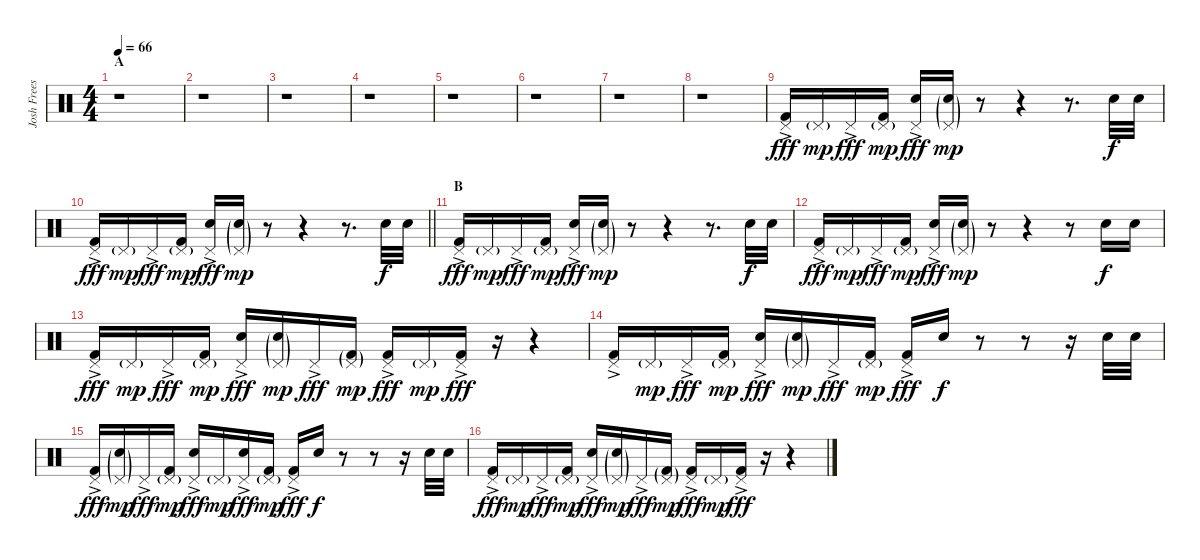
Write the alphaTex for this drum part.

\track ("Josh Freese - Drums" "Josh Frees") {instrument percussion}
\staff {score}
\articulation defaults
\ts (4 4)
\section ("" "A")
\tempo 66
\clef neutral
\ks c
r.1{dy fff} |
r.1 |
r.1 |
r.1 |
r.1 |
r.1 |
r.1 |
r.1 |
("Pedal Hi-Hat (hit)"{ac} "Kick (hit) 2").16 "Pedal Hi-Hat (hit)"{g}.16{dy mp} "Pedal Hi-Hat (hit)"{ac}.16{dy fff} ("Pedal Hi-Hat (hit)"{g} "Kick (hit) 2").16{dy mp} ("Pedal Hi-Hat (hit)"{ac} "Electric Snare (hit)").16{dy fff} ("Pedal Hi-Hat (hit)"{g} "Electric Snare (hit)"{g}).16{dy mp} r.8 r.4 r.8{d} "Electric Snare (hit)".32{dy f} "Electric Snare (hit)".32 |
\barLineRight lightlight
("Pedal Hi-Hat (hit)"{ac} "Kick (hit) 2").16{dy fff} "Pedal Hi-Hat (hit)"{g}.16{dy mp} "Pedal Hi-Hat (hit)"{ac}.16{dy fff} ("Pedal Hi-Hat (hit)"{g} "Kick (hit) 2").16{dy mp} ("Pedal Hi-Hat (hit)"{ac} "Electric Snare (hit)").16{dy fff} ("Pedal Hi-Hat (hit)"{g} "Electric Snare (hit)"{g}).16{dy mp} r.8 r.4 r.8{d} "Electric Snare (hit)".32{dy f} "Electric Snare (hit)".32 |
\section ("" "B")
("Pedal Hi-Hat (hit)"{ac} "Kick (hit) 2").16{dy fff} "Pedal Hi-Hat (hit)"{g}.16{dy mp} "Pedal Hi-Hat (hit)"{ac}.16{dy fff} ("Pedal Hi-Hat (hit)"{g} "Kick (hit) 2").16{dy mp} ("Pedal Hi-Hat (hit)"{ac} "Electric Snare (hit)").16{dy fff} ("Pedal Hi-Hat (hit)"{g} "Electric Snare (hit)"{g}).16{dy mp} r.8 r.4 r.8{d} "Electric Snare (hit)".32{dy f} "Electric Snare (hit)".32 |
("Pedal Hi-Hat (hit)"{ac} "Kick (hit) 2").16{dy fff} "Pedal Hi-Hat (hit)"{g}.16{dy mp} "Pedal Hi-Hat (hit)"{ac}.16{dy fff} ("Pedal Hi-Hat (hit)"{g} "Kick (hit) 2").16{dy mp} ("Pedal Hi-Hat (hit)"{ac} "Electric Snare (hit)").16{dy fff} ("Pedal Hi-Hat (hit)"{g} "Electric Snare (hit)"{g}).16{dy mp} r.8 r.4 r.8 "Snare (hit) 2".16{dy f} "Electric Snare (hit)".16 |
("Pedal Hi-Hat (hit)"{ac} "Kick (hit) 2").16{dy fff} "Pedal Hi-Hat (hit)"{g}.16{dy mp} "Pedal Hi-Hat (hit)"{ac}.16{dy fff} ("Pedal Hi-Hat (hit)"{g} "Kick (hit) 2").16{dy mp} ("Pedal Hi-Hat (hit)"{ac} "Electric Snare (hit)").16{dy fff} ("Pedal Hi-Hat (hit)"{g} "Electric Snare (hit)"{g}).16{dy mp} "Pedal Hi-Hat (hit)"{ac}.16{dy fff} ("Pedal Hi-Hat (hit)"{g} "Kick (hit) 2"{g}).16{dy mp} ("Pedal Hi-Hat (hit)"{ac} "Kick (hit) 2").16{dy fff} "Pedal Hi-Hat (hit)"{g}.16{dy mp} ("Pedal Hi-Hat (hit)"{ac} "Kick (hit) 2").16{dy fff} r.16 r.4 |
("Pedal Hi-Hat (hit)"{ac} "Kick (hit) 2").16 "Pedal Hi-Hat (hit)"{g}.16{dy mp} "Pedal Hi-Hat (hit)"{ac}.16{dy fff} ("Pedal Hi-Hat (hit)"{g} "Kick (hit) 2").16{dy mp} ("Pedal Hi-Hat (hit)"{ac} "Electric Snare (hit)").16{dy fff} ("Pedal Hi-Hat (hit)"{g} "Electric Snare (hit)"{g}).16{dy mp} "Pedal Hi-Hat (hit)"{ac}.16{dy fff} ("Pedal Hi-Hat (hit)"{g} "Kick (hit) 2").16{dy mp} ("Pedal Hi-Hat (hit)"{ac} "Kick (hit) 2").16{dy fff} "Electric Snare (hit)".16{dy f} r.8 r.8 r.16 "Electric Snare (hit)".32 "Electric Snare (hit)".32 |
("Pedal Hi-Hat (hit)"{ac} "Kick (hit) 2").16{dy fff} ("Pedal Hi-Hat (hit)"{g} "Electric Snare (hit)"{g}).16{dy mp} "Pedal Hi-Hat (hit)"{ac}.16{dy fff} ("Pedal Hi-Hat (hit)"{g} "Kick (hit) 2").16{dy mp} ("Pedal Hi-Hat (hit)"{ac} "Electric Snare (hit)").16{dy fff} "Pedal Hi-Hat (hit)"{g}.16{dy mp} ("Pedal Hi-Hat (hit)"{ac} "Electric Snare (hit)").16{dy fff} ("Pedal Hi-Hat (hit)"{g} "Kick (hit) 2").16{dy mp} ("Pedal Hi-Hat (hit)"{ac} "Kick (hit) 2").16{dy fff} "Electric Snare (hit)".16{dy f} r.8 r.8 r.16 "Electric Snare (hit)".32 "Electric Snare (hit)".32 |
("Pedal Hi-Hat (hit)"{ac} "Kick (hit) 2").16{dy fff} "Pedal Hi-Hat (hit)"{g}.16{dy mp} "Pedal Hi-Hat (hit)"{ac}.16{dy fff} ("Pedal Hi-Hat (hit)"{g} "Kick (hit) 2").16{dy mp} ("Pedal Hi-Hat (hit)"{ac} "Electric Snare (hit)").16{dy fff} ("Pedal Hi-Hat (hit)"{g} "Electric Snare (hit)"{g}).16{dy mp} "Pedal Hi-Hat (hit)"{ac}.16{dy fff} ("Pedal Hi-Hat (hit)"{g} "Kick (hit) 2"{g}).16{dy mp} ("Pedal Hi-Hat (hit)"{ac} "Kick (hit) 2").16{dy fff} "Pedal Hi-Hat (hit)"{g}.16{dy mp} ("Pedal Hi-Hat (hit)"{ac} "Kick (hit) 2").16{dy fff} r.16 r.4
